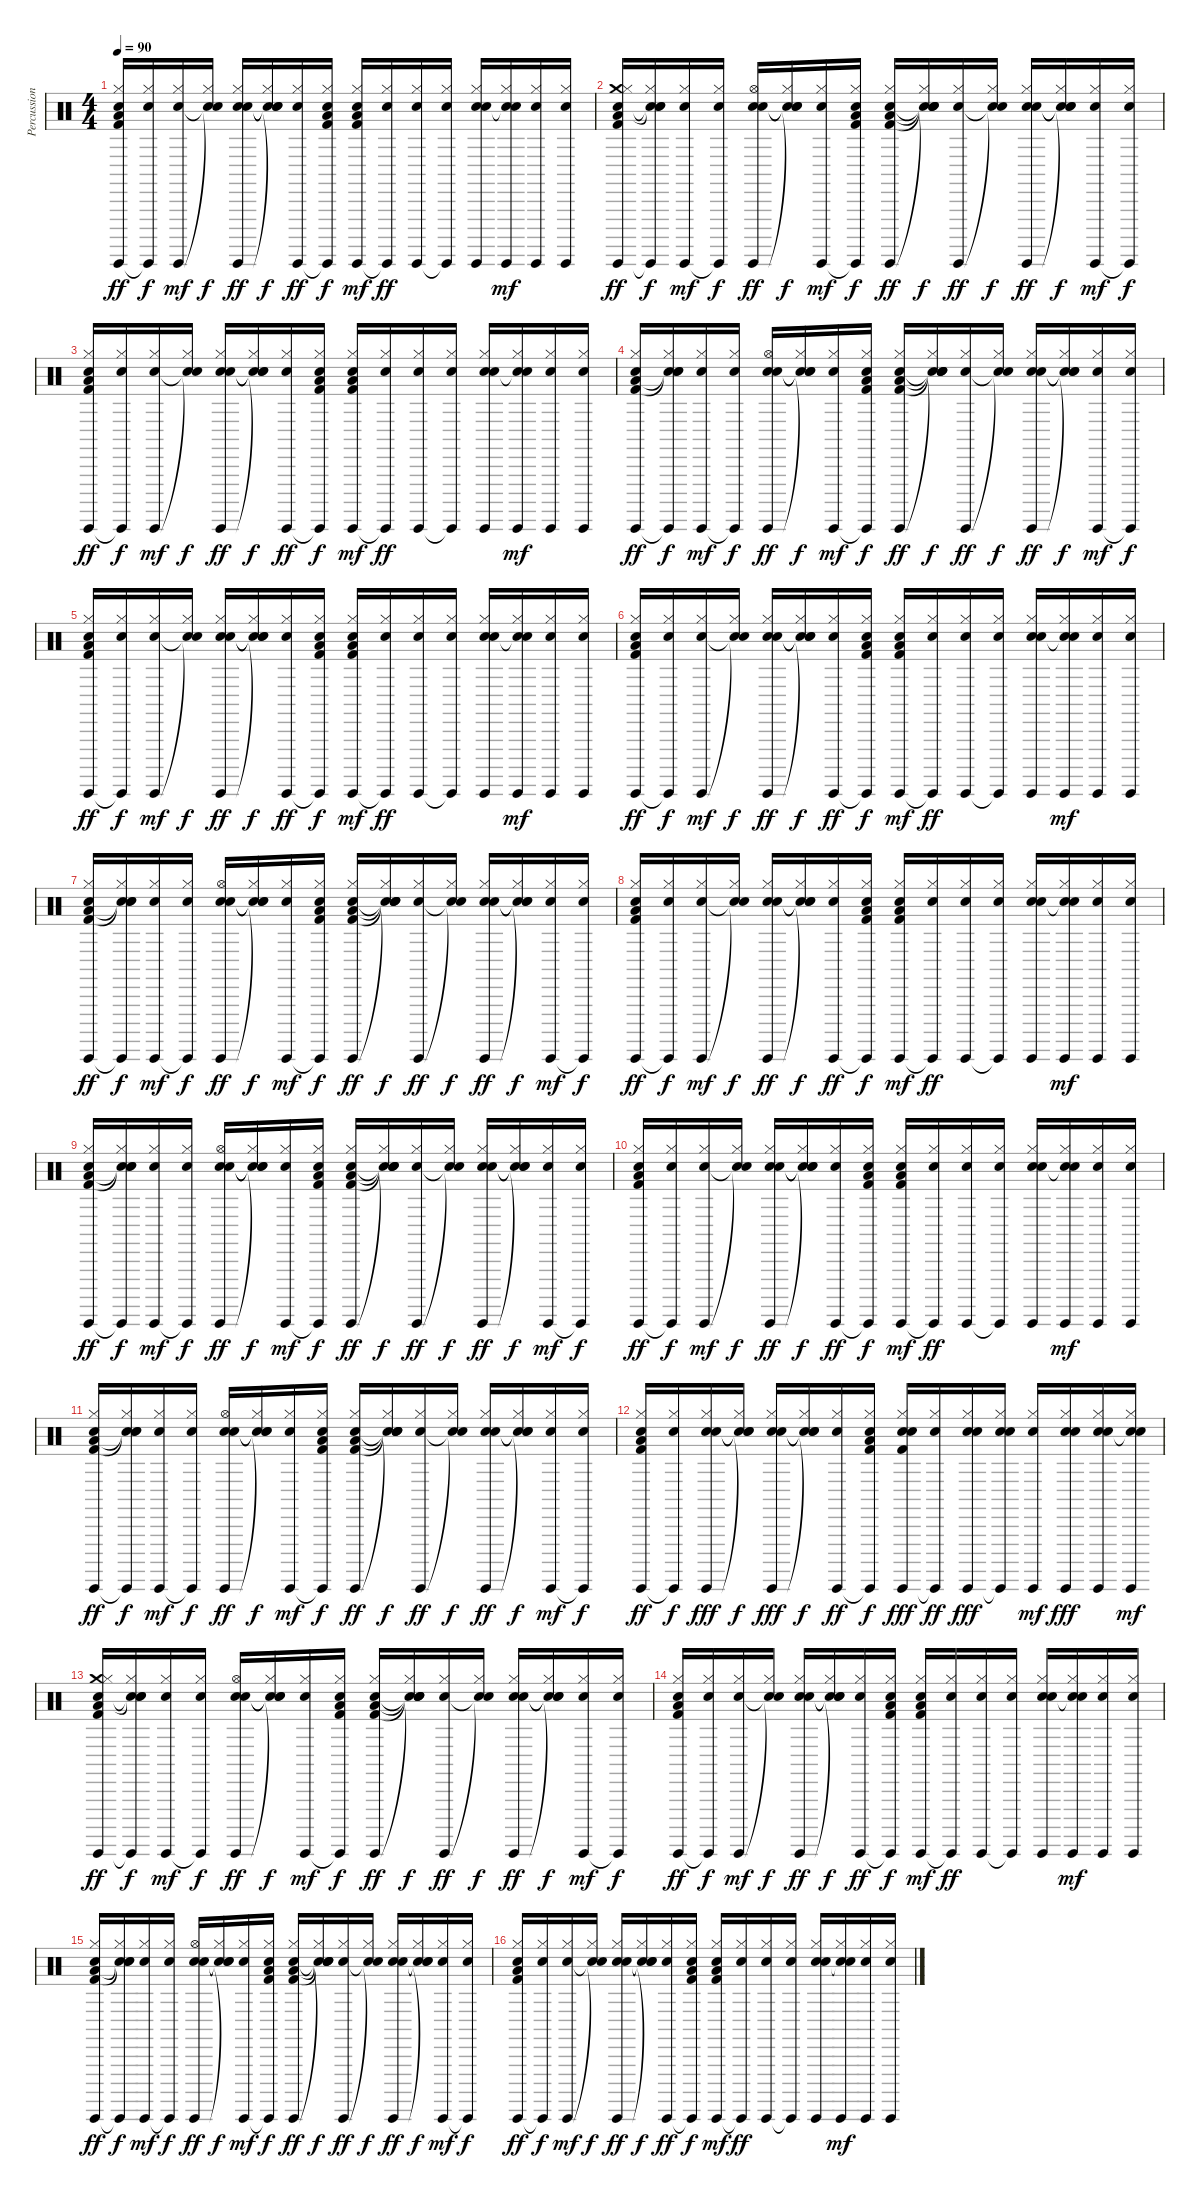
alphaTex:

\track ("Percussion" "Percussion") {instrument percussion}
\staff {score}
\articulation defaults
\ts (4 4)
\tempo 90
\clef neutral
\ks c
("Guiro (hit)" "Hi-Hat (closed)" "Hand Clap (hit)" "Low Floor Tom (hit)" "Kick (hit) 2").16{dy ff} ("Guiro (hit)"{t} "Hi-Hat (closed)" "Hand Clap (hit)").16{dy f} ("Guiro (hit)" "Hi-Hat (closed)" "Hand Clap (hit)").16{dy mf} ("Snare (hit)"{t} "Hi-Hat (closed)" "Snare (hit)"{t}).16{dy f} ("Guiro (hit)" "Hi-Hat (closed)" "Hand Clap (hit)" "Snare (hit) 2").16{dy ff} ("Snare (hit)"{t} "Hi-Hat (closed)" "Snare (hit)"{t} "Snare (hit)"{t}).16{dy f} ("Guiro (hit)" "Hi-Hat (closed)" "Hand Clap (hit)").16{dy ff} ("Guiro (hit)"{t} "Hi-Hat (closed)" "Hand Clap (hit)" "Low Floor Tom (hit)" "Kick (hit) 2").16{dy f} ("Guiro (hit)" "Hi-Hat (closed)" "Hand Clap (hit)" "Low Floor Tom (hit)" "Kick (hit) 2").16{dy mf} ("Guiro (hit)"{t} "Hi-Hat (closed)" "Hand Clap (hit)").16{dy ff} ("Guiro (hit)" "Hi-Hat (closed)" "Hand Clap (hit)").16 ("Guiro (hit)"{t} "Hi-Hat (closed)" "Hand Clap (hit)").16 ("Guiro (hit)" "Hi-Hat (closed)" "Hand Clap (hit)" "Snare (hit) 2").16 ("Guiro (hit)" "Hi-Hat (closed)" "Hand Clap (hit)" "Snare (hit)"{t}).16{dy mf} ("Guiro (hit)" "Hi-Hat (closed)" "Hand Clap (hit)").16 ("Guiro (hit)" "Hi-Hat (closed)" "Hand Clap (hit)").16 |
("Guiro (hit)" "Crash medium (hit)" "Hi-Hat (closed)" "Hand Clap (hit)" "Low Floor Tom (hit)" "Kick (hit) 2").16{dy ff} ("Guiro (hit)"{t} "Hi-Hat (closed)" "Hand Clap (hit)" "Snare (hit)"{t} "Snare (hit)"{t}).16{dy f} ("Guiro (hit)" "Hi-Hat (closed)" "Hand Clap (hit)").16{dy mf} ("Guiro (hit)"{t} "Hi-Hat (closed)" "Hand Clap (hit)").16{dy f} ("Guiro (hit)" "Hi-Hat (open)" "Hand Clap (hit)" "Snare (hit) 2").16{dy ff} ("Snare (hit)"{t} "Hi-Hat (closed)" "Snare (hit)"{t} "Snare (hit)"{t}).16{dy f} ("Guiro (hit)" "Hi-Hat (closed)" "Hand Clap (hit)").16{dy mf} ("Guiro (hit)"{t} "Hi-Hat (closed)" "Hand Clap (hit)" "Low Floor Tom (hit)" "Kick (hit) 2").16{dy f} ("Guiro (hit)" "Hi-Hat (closed)" "Hand Clap (hit)" "Low Floor Tom (hit)" "Kick (hit) 2").16{dy ff} ("Snare (hit)"{t} "Hi-Hat (closed)" "Snare (hit)"{t} "Snare (hit)"{t} "Snare (hit)"{t}).16{dy f} ("Guiro (hit)" "Hi-Hat (closed)" "Hand Clap (hit)").16{dy ff} ("Snare (hit)"{t} "Hi-Hat (closed)" "Snare (hit)"{t}).16{dy f} ("Guiro (hit)" "Hi-Hat (closed)" "Hand Clap (hit)" "Snare (hit) 2").16{dy ff} ("Snare (hit)"{t} "Hi-Hat (closed)" "Snare (hit)"{t} "Snare (hit)"{t}).16{dy f} ("Guiro (hit)" "Hi-Hat (closed)" "Hand Clap (hit)").16{dy mf} ("Guiro (hit)"{t} "Hi-Hat (closed)" "Hand Clap (hit)").16{dy f} |
("Guiro (hit)" "Hi-Hat (closed)" "Hand Clap (hit)" "Low Floor Tom (hit)" "Kick (hit) 2").16{dy ff} ("Guiro (hit)"{t} "Hi-Hat (closed)" "Hand Clap (hit)").16{dy f} ("Guiro (hit)" "Hi-Hat (closed)" "Hand Clap (hit)").16{dy mf} ("Snare (hit)"{t} "Hi-Hat (closed)" "Snare (hit)"{t}).16{dy f} ("Guiro (hit)" "Hi-Hat (closed)" "Hand Clap (hit)" "Snare (hit) 2").16{dy ff} ("Snare (hit)"{t} "Hi-Hat (closed)" "Snare (hit)"{t} "Snare (hit)"{t}).16{dy f} ("Guiro (hit)" "Hi-Hat (closed)" "Hand Clap (hit)").16{dy ff} ("Guiro (hit)"{t} "Hi-Hat (closed)" "Hand Clap (hit)" "Low Floor Tom (hit)" "Kick (hit) 2").16{dy f} ("Guiro (hit)" "Hi-Hat (closed)" "Hand Clap (hit)" "Low Floor Tom (hit)" "Kick (hit) 2").16{dy mf} ("Guiro (hit)"{t} "Hi-Hat (closed)" "Hand Clap (hit)").16{dy ff} ("Guiro (hit)" "Hi-Hat (closed)" "Hand Clap (hit)").16 ("Guiro (hit)"{t} "Hi-Hat (closed)" "Hand Clap (hit)").16 ("Guiro (hit)" "Hi-Hat (closed)" "Hand Clap (hit)" "Snare (hit) 2").16 ("Guiro (hit)" "Hi-Hat (closed)" "Hand Clap (hit)" "Snare (hit)"{t}).16{dy mf} ("Guiro (hit)" "Hi-Hat (closed)" "Hand Clap (hit)").16 ("Guiro (hit)" "Hi-Hat (closed)" "Hand Clap (hit)").16 |
("Guiro (hit)" "Hi-Hat (closed)" "Hand Clap (hit)" "Low Floor Tom (hit)" "Kick (hit) 2").16{dy ff} ("Guiro (hit)"{t} "Hi-Hat (closed)" "Hand Clap (hit)" "Snare (hit)"{t} "Snare (hit)"{t}).16{dy f} ("Guiro (hit)" "Hi-Hat (closed)" "Hand Clap (hit)").16{dy mf} ("Guiro (hit)"{t} "Hi-Hat (closed)" "Hand Clap (hit)").16{dy f} ("Guiro (hit)" "Hi-Hat (open)" "Hand Clap (hit)" "Snare (hit) 2").16{dy ff} ("Snare (hit)"{t} "Hi-Hat (closed)" "Snare (hit)"{t} "Snare (hit)"{t}).16{dy f} ("Guiro (hit)" "Hi-Hat (closed)" "Hand Clap (hit)").16{dy mf} ("Guiro (hit)"{t} "Hi-Hat (closed)" "Hand Clap (hit)" "Low Floor Tom (hit)" "Kick (hit) 2").16{dy f} ("Guiro (hit)" "Hi-Hat (closed)" "Hand Clap (hit)" "Low Floor Tom (hit)" "Kick (hit) 2").16{dy ff} ("Snare (hit)"{t} "Hi-Hat (closed)" "Snare (hit)"{t} "Snare (hit)"{t} "Snare (hit)"{t}).16{dy f} ("Guiro (hit)" "Hi-Hat (closed)" "Hand Clap (hit)").16{dy ff} ("Snare (hit)"{t} "Hi-Hat (closed)" "Snare (hit)"{t}).16{dy f} ("Guiro (hit)" "Hi-Hat (closed)" "Hand Clap (hit)" "Snare (hit) 2").16{dy ff} ("Snare (hit)"{t} "Hi-Hat (closed)" "Snare (hit)"{t} "Snare (hit)"{t}).16{dy f} ("Guiro (hit)" "Hi-Hat (closed)" "Hand Clap (hit)").16{dy mf} ("Guiro (hit)"{t} "Hi-Hat (closed)" "Hand Clap (hit)").16{dy f} |
("Guiro (hit)" "Hi-Hat (closed)" "Hand Clap (hit)" "Low Floor Tom (hit)" "Kick (hit) 2").16{dy ff} ("Guiro (hit)"{t} "Hi-Hat (closed)" "Hand Clap (hit)").16{dy f} ("Guiro (hit)" "Hi-Hat (closed)" "Hand Clap (hit)").16{dy mf} ("Snare (hit)"{t} "Hi-Hat (closed)" "Snare (hit)"{t}).16{dy f} ("Guiro (hit)" "Hi-Hat (closed)" "Hand Clap (hit)" "Snare (hit) 2").16{dy ff} ("Snare (hit)"{t} "Hi-Hat (closed)" "Snare (hit)"{t} "Snare (hit)"{t}).16{dy f} ("Guiro (hit)" "Hi-Hat (closed)" "Hand Clap (hit)").16{dy ff} ("Guiro (hit)"{t} "Hi-Hat (closed)" "Hand Clap (hit)" "Low Floor Tom (hit)" "Kick (hit) 2").16{dy f} ("Guiro (hit)" "Hi-Hat (closed)" "Hand Clap (hit)" "Low Floor Tom (hit)" "Kick (hit) 2").16{dy mf} ("Guiro (hit)"{t} "Hi-Hat (closed)" "Hand Clap (hit)").16{dy ff} ("Guiro (hit)" "Hi-Hat (closed)" "Hand Clap (hit)").16 ("Guiro (hit)"{t} "Hi-Hat (closed)" "Hand Clap (hit)").16 ("Guiro (hit)" "Hi-Hat (closed)" "Hand Clap (hit)" "Snare (hit) 2").16 ("Guiro (hit)" "Hi-Hat (closed)" "Hand Clap (hit)" "Snare (hit)"{t}).16{dy mf} ("Guiro (hit)" "Hi-Hat (closed)" "Hand Clap (hit)").16 ("Guiro (hit)" "Hi-Hat (closed)" "Hand Clap (hit)").16 |
("Guiro (hit)" "Hi-Hat (closed)" "Hand Clap (hit)" "Low Floor Tom (hit)" "Kick (hit) 2").16{dy ff} ("Guiro (hit)"{t} "Hi-Hat (closed)" "Hand Clap (hit)").16{dy f} ("Guiro (hit)" "Hi-Hat (closed)" "Hand Clap (hit)").16{dy mf} ("Snare (hit)"{t} "Hi-Hat (closed)" "Snare (hit)"{t}).16{dy f} ("Guiro (hit)" "Hi-Hat (closed)" "Hand Clap (hit)" "Snare (hit) 2").16{dy ff} ("Snare (hit)"{t} "Hi-Hat (closed)" "Snare (hit)"{t} "Snare (hit)"{t}).16{dy f} ("Guiro (hit)" "Hi-Hat (closed)" "Hand Clap (hit)").16{dy ff} ("Guiro (hit)"{t} "Hi-Hat (closed)" "Hand Clap (hit)" "Low Floor Tom (hit)" "Kick (hit) 2").16{dy f} ("Guiro (hit)" "Hi-Hat (closed)" "Hand Clap (hit)" "Low Floor Tom (hit)" "Kick (hit) 2").16{dy mf} ("Guiro (hit)"{t} "Hi-Hat (closed)" "Hand Clap (hit)").16{dy ff} ("Guiro (hit)" "Hi-Hat (closed)" "Hand Clap (hit)").16 ("Guiro (hit)"{t} "Hi-Hat (closed)" "Hand Clap (hit)").16 ("Guiro (hit)" "Hi-Hat (closed)" "Hand Clap (hit)" "Snare (hit) 2").16 ("Guiro (hit)" "Hi-Hat (closed)" "Hand Clap (hit)" "Snare (hit)"{t}).16{dy mf} ("Guiro (hit)" "Hi-Hat (closed)" "Hand Clap (hit)").16 ("Guiro (hit)" "Hi-Hat (closed)" "Hand Clap (hit)").16 |
("Guiro (hit)" "Hi-Hat (closed)" "Hand Clap (hit)" "Low Floor Tom (hit)" "Kick (hit) 2").16{dy ff} ("Guiro (hit)"{t} "Hi-Hat (closed)" "Hand Clap (hit)" "Snare (hit)"{t} "Snare (hit)"{t}).16{dy f} ("Guiro (hit)" "Hi-Hat (closed)" "Hand Clap (hit)").16{dy mf} ("Guiro (hit)"{t} "Hi-Hat (closed)" "Hand Clap (hit)").16{dy f} ("Guiro (hit)" "Hi-Hat (open)" "Hand Clap (hit)" "Snare (hit) 2").16{dy ff} ("Snare (hit)"{t} "Hi-Hat (closed)" "Snare (hit)"{t} "Snare (hit)"{t}).16{dy f} ("Guiro (hit)" "Hi-Hat (closed)" "Hand Clap (hit)").16{dy mf} ("Guiro (hit)"{t} "Hi-Hat (closed)" "Hand Clap (hit)" "Low Floor Tom (hit)" "Kick (hit) 2").16{dy f} ("Guiro (hit)" "Hi-Hat (closed)" "Hand Clap (hit)" "Low Floor Tom (hit)" "Kick (hit) 2").16{dy ff} ("Snare (hit)"{t} "Hi-Hat (closed)" "Snare (hit)"{t} "Snare (hit)"{t} "Snare (hit)"{t}).16{dy f} ("Guiro (hit)" "Hi-Hat (closed)" "Hand Clap (hit)").16{dy ff} ("Snare (hit)"{t} "Hi-Hat (closed)" "Snare (hit)"{t}).16{dy f} ("Guiro (hit)" "Hi-Hat (closed)" "Hand Clap (hit)" "Snare (hit) 2").16{dy ff} ("Snare (hit)"{t} "Hi-Hat (closed)" "Snare (hit)"{t} "Snare (hit)"{t}).16{dy f} ("Guiro (hit)" "Hi-Hat (closed)" "Hand Clap (hit)").16{dy mf} ("Guiro (hit)"{t} "Hi-Hat (closed)" "Hand Clap (hit)").16{dy f} |
("Guiro (hit)" "Hi-Hat (closed)" "Hand Clap (hit)" "Low Floor Tom (hit)" "Kick (hit) 2").16{dy ff} ("Guiro (hit)"{t} "Hi-Hat (closed)" "Hand Clap (hit)").16{dy f} ("Guiro (hit)" "Hi-Hat (closed)" "Hand Clap (hit)").16{dy mf} ("Snare (hit)"{t} "Hi-Hat (closed)" "Snare (hit)"{t}).16{dy f} ("Guiro (hit)" "Hi-Hat (closed)" "Hand Clap (hit)" "Snare (hit) 2").16{dy ff} ("Snare (hit)"{t} "Hi-Hat (closed)" "Snare (hit)"{t} "Snare (hit)"{t}).16{dy f} ("Guiro (hit)" "Hi-Hat (closed)" "Hand Clap (hit)").16{dy ff} ("Guiro (hit)"{t} "Hi-Hat (closed)" "Hand Clap (hit)" "Low Floor Tom (hit)" "Kick (hit) 2").16{dy f} ("Guiro (hit)" "Hi-Hat (closed)" "Hand Clap (hit)" "Low Floor Tom (hit)" "Kick (hit) 2").16{dy mf} ("Guiro (hit)"{t} "Hi-Hat (closed)" "Hand Clap (hit)").16{dy ff} ("Guiro (hit)" "Hi-Hat (closed)" "Hand Clap (hit)").16 ("Guiro (hit)"{t} "Hi-Hat (closed)" "Hand Clap (hit)").16 ("Guiro (hit)" "Hi-Hat (closed)" "Hand Clap (hit)" "Snare (hit) 2").16 ("Guiro (hit)" "Hi-Hat (closed)" "Hand Clap (hit)" "Snare (hit)"{t}).16{dy mf} ("Guiro (hit)" "Hi-Hat (closed)" "Hand Clap (hit)").16 ("Guiro (hit)" "Hi-Hat (closed)" "Hand Clap (hit)").16 |
("Guiro (hit)" "Hi-Hat (closed)" "Hand Clap (hit)" "Low Floor Tom (hit)" "Kick (hit) 2").16{dy ff} ("Guiro (hit)"{t} "Hi-Hat (closed)" "Hand Clap (hit)" "Snare (hit)"{t} "Snare (hit)"{t}).16{dy f} ("Guiro (hit)" "Hi-Hat (closed)" "Hand Clap (hit)").16{dy mf} ("Guiro (hit)"{t} "Hi-Hat (closed)" "Hand Clap (hit)").16{dy f} ("Guiro (hit)" "Hi-Hat (open)" "Hand Clap (hit)" "Snare (hit) 2").16{dy ff} ("Snare (hit)"{t} "Hi-Hat (closed)" "Snare (hit)"{t} "Snare (hit)"{t}).16{dy f} ("Guiro (hit)" "Hi-Hat (closed)" "Hand Clap (hit)").16{dy mf} ("Guiro (hit)"{t} "Hi-Hat (closed)" "Hand Clap (hit)" "Low Floor Tom (hit)" "Kick (hit) 2").16{dy f} ("Guiro (hit)" "Hi-Hat (closed)" "Hand Clap (hit)" "Low Floor Tom (hit)" "Kick (hit) 2").16{dy ff} ("Snare (hit)"{t} "Hi-Hat (closed)" "Snare (hit)"{t} "Snare (hit)"{t} "Snare (hit)"{t}).16{dy f} ("Guiro (hit)" "Hi-Hat (closed)" "Hand Clap (hit)").16{dy ff} ("Snare (hit)"{t} "Hi-Hat (closed)" "Snare (hit)"{t}).16{dy f} ("Guiro (hit)" "Hi-Hat (closed)" "Hand Clap (hit)" "Snare (hit) 2").16{dy ff} ("Snare (hit)"{t} "Hi-Hat (closed)" "Snare (hit)"{t} "Snare (hit)"{t}).16{dy f} ("Guiro (hit)" "Hi-Hat (closed)" "Hand Clap (hit)").16{dy mf} ("Guiro (hit)"{t} "Hi-Hat (closed)" "Hand Clap (hit)").16{dy f} |
("Guiro (hit)" "Hi-Hat (closed)" "Hand Clap (hit)" "Low Floor Tom (hit)" "Kick (hit) 2").16{dy ff} ("Guiro (hit)"{t} "Hi-Hat (closed)" "Hand Clap (hit)").16{dy f} ("Guiro (hit)" "Hi-Hat (closed)" "Hand Clap (hit)").16{dy mf} ("Snare (hit)"{t} "Hi-Hat (closed)" "Snare (hit)"{t}).16{dy f} ("Guiro (hit)" "Hi-Hat (closed)" "Hand Clap (hit)" "Snare (hit) 2").16{dy ff} ("Snare (hit)"{t} "Hi-Hat (closed)" "Snare (hit)"{t} "Snare (hit)"{t}).16{dy f} ("Guiro (hit)" "Hi-Hat (closed)" "Hand Clap (hit)").16{dy ff} ("Guiro (hit)"{t} "Hi-Hat (closed)" "Hand Clap (hit)" "Low Floor Tom (hit)" "Kick (hit) 2").16{dy f} ("Guiro (hit)" "Hi-Hat (closed)" "Hand Clap (hit)" "Low Floor Tom (hit)" "Kick (hit) 2").16{dy mf} ("Guiro (hit)"{t} "Hi-Hat (closed)" "Hand Clap (hit)").16{dy ff} ("Guiro (hit)" "Hi-Hat (closed)" "Hand Clap (hit)").16 ("Guiro (hit)"{t} "Hi-Hat (closed)" "Hand Clap (hit)").16 ("Guiro (hit)" "Hi-Hat (closed)" "Hand Clap (hit)" "Snare (hit) 2").16 ("Guiro (hit)" "Hi-Hat (closed)" "Hand Clap (hit)" "Snare (hit)"{t}).16{dy mf} ("Guiro (hit)" "Hi-Hat (closed)" "Hand Clap (hit)").16 ("Guiro (hit)" "Hi-Hat (closed)" "Hand Clap (hit)").16 |
("Guiro (hit)" "Hi-Hat (closed)" "Hand Clap (hit)" "Low Floor Tom (hit)" "Kick (hit) 2").16{dy ff} ("Guiro (hit)"{t} "Hi-Hat (closed)" "Hand Clap (hit)" "Snare (hit)"{t} "Snare (hit)"{t}).16{dy f} ("Guiro (hit)" "Hi-Hat (closed)" "Hand Clap (hit)").16{dy mf} ("Guiro (hit)"{t} "Hi-Hat (closed)" "Hand Clap (hit)").16{dy f} ("Guiro (hit)" "Hi-Hat (open)" "Hand Clap (hit)" "Snare (hit) 2").16{dy ff} ("Snare (hit)"{t} "Hi-Hat (closed)" "Snare (hit)"{t} "Snare (hit)"{t}).16{dy f} ("Guiro (hit)" "Hi-Hat (closed)" "Hand Clap (hit)").16{dy mf} ("Guiro (hit)"{t} "Hi-Hat (closed)" "Hand Clap (hit)" "Low Floor Tom (hit)" "Kick (hit) 2").16{dy f} ("Guiro (hit)" "Hi-Hat (closed)" "Hand Clap (hit)" "Low Floor Tom (hit)" "Kick (hit) 2").16{dy ff} ("Snare (hit)"{t} "Hi-Hat (closed)" "Snare (hit)"{t} "Snare (hit)"{t} "Snare (hit)"{t}).16{dy f} ("Guiro (hit)" "Hi-Hat (closed)" "Hand Clap (hit)").16{dy ff} ("Snare (hit)"{t} "Hi-Hat (closed)" "Snare (hit)"{t}).16{dy f} ("Guiro (hit)" "Hi-Hat (closed)" "Hand Clap (hit)" "Snare (hit) 2").16{dy ff} ("Snare (hit)"{t} "Hi-Hat (closed)" "Snare (hit)"{t} "Snare (hit)"{t}).16{dy f} ("Guiro (hit)" "Hi-Hat (closed)" "Hand Clap (hit)").16{dy mf} ("Guiro (hit)"{t} "Hi-Hat (closed)" "Hand Clap (hit)").16{dy f} |
("Guiro (hit)" "Hi-Hat (closed)" "Hand Clap (hit)" "Low Floor Tom (hit)" "Kick (hit) 2").16{dy ff} ("Guiro (hit)"{t} "Hi-Hat (closed)" "Hand Clap (hit)").16{dy f} ("Guiro (hit)" "Hi-Hat (closed)" "Hand Clap (hit)" "Snare (hit) 2").16{dy fff} ("Snare (hit)"{t} "Hi-Hat (closed)" "Snare (hit)"{t} "Snare (hit)"{t}).16{dy f} ("Guiro (hit)" "Hi-Hat (closed)" "Hand Clap (hit)" "Snare (hit) 2").16{dy fff} ("Snare (hit)"{t} "Hi-Hat (closed)" "Snare (hit)"{t} "Snare (hit)"{t}).16{dy f} ("Guiro (hit)" "Hi-Hat (closed)" "Hand Clap (hit)").16{dy ff} ("Guiro (hit)"{t} "Hi-Hat (closed)" "Hand Clap (hit)" "Low Floor Tom (hit)" "Kick (hit) 2").16{dy f} ("Guiro (hit)" "Hi-Hat (closed)" "Hand Clap (hit)" "Snare (hit) 2" "Kick (hit) 2").16{dy fff} ("Guiro (hit)"{t} "Hi-Hat (closed)" "Hand Clap (hit)").16{dy ff} ("Guiro (hit)" "Hi-Hat (closed)" "Hand Clap (hit)" "Snare (hit) 2").16{dy fff} ("Guiro (hit)"{t} "Hi-Hat (closed)" "Hand Clap (hit)" "Snare (hit) 2").16 ("Guiro (hit)" "Hi-Hat (closed)" "Hand Clap (hit)").16{dy mf} ("Guiro (hit)" "Hi-Hat (closed)" "Hand Clap (hit)" "Snare (hit) 2").16{dy fff} ("Guiro (hit)" "Hi-Hat (closed)" "Hand Clap (hit)" "Snare (hit) 2").16 ("Guiro (hit)" "Hi-Hat (closed)" "Hand Clap (hit)" "Snare (hit)"{t}).16{dy mf} |
("Guiro (hit)" "Crash medium (hit)" "Hi-Hat (closed)" "Hand Clap (hit)" "Low Floor Tom (hit)" "Kick (hit) 2").16{dy ff} ("Guiro (hit)"{t} "Hi-Hat (closed)" "Hand Clap (hit)" "Snare (hit)"{t} "Snare (hit)"{t}).16{dy f} ("Guiro (hit)" "Hi-Hat (closed)" "Hand Clap (hit)").16{dy mf} ("Guiro (hit)"{t} "Hi-Hat (closed)" "Hand Clap (hit)").16{dy f} ("Guiro (hit)" "Hi-Hat (open)" "Hand Clap (hit)" "Snare (hit) 2").16{dy ff} ("Snare (hit)"{t} "Hi-Hat (closed)" "Snare (hit)"{t} "Snare (hit)"{t}).16{dy f} ("Guiro (hit)" "Hi-Hat (closed)" "Hand Clap (hit)").16{dy mf} ("Guiro (hit)"{t} "Hi-Hat (closed)" "Hand Clap (hit)" "Low Floor Tom (hit)" "Kick (hit) 2").16{dy f} ("Guiro (hit)" "Hi-Hat (closed)" "Hand Clap (hit)" "Low Floor Tom (hit)" "Kick (hit) 2").16{dy ff} ("Snare (hit)"{t} "Hi-Hat (closed)" "Snare (hit)"{t} "Snare (hit)"{t} "Snare (hit)"{t}).16{dy f} ("Guiro (hit)" "Hi-Hat (closed)" "Hand Clap (hit)").16{dy ff} ("Snare (hit)"{t} "Hi-Hat (closed)" "Snare (hit)"{t}).16{dy f} ("Guiro (hit)" "Hi-Hat (closed)" "Hand Clap (hit)" "Snare (hit) 2").16{dy ff} ("Snare (hit)"{t} "Hi-Hat (closed)" "Snare (hit)"{t} "Snare (hit)"{t}).16{dy f} ("Guiro (hit)" "Hi-Hat (closed)" "Hand Clap (hit)").16{dy mf} ("Guiro (hit)"{t} "Hi-Hat (closed)" "Hand Clap (hit)").16{dy f} |
("Guiro (hit)" "Hi-Hat (closed)" "Hand Clap (hit)" "Low Floor Tom (hit)" "Kick (hit) 2").16{dy ff} ("Guiro (hit)"{t} "Hi-Hat (closed)" "Hand Clap (hit)").16{dy f} ("Guiro (hit)" "Hi-Hat (closed)" "Hand Clap (hit)").16{dy mf} ("Snare (hit)"{t} "Hi-Hat (closed)" "Snare (hit)"{t}).16{dy f} ("Guiro (hit)" "Hi-Hat (closed)" "Hand Clap (hit)" "Snare (hit) 2").16{dy ff} ("Snare (hit)"{t} "Hi-Hat (closed)" "Snare (hit)"{t} "Snare (hit)"{t}).16{dy f} ("Guiro (hit)" "Hi-Hat (closed)" "Hand Clap (hit)").16{dy ff} ("Guiro (hit)"{t} "Hi-Hat (closed)" "Hand Clap (hit)" "Low Floor Tom (hit)" "Kick (hit) 2").16{dy f} ("Guiro (hit)" "Hi-Hat (closed)" "Hand Clap (hit)" "Low Floor Tom (hit)" "Kick (hit) 2").16{dy mf} ("Guiro (hit)"{t} "Hi-Hat (closed)" "Hand Clap (hit)").16{dy ff} ("Guiro (hit)" "Hi-Hat (closed)" "Hand Clap (hit)").16 ("Guiro (hit)"{t} "Hi-Hat (closed)" "Hand Clap (hit)").16 ("Guiro (hit)" "Hi-Hat (closed)" "Hand Clap (hit)" "Snare (hit) 2").16 ("Guiro (hit)" "Hi-Hat (closed)" "Hand Clap (hit)" "Snare (hit)"{t}).16{dy mf} ("Guiro (hit)" "Hi-Hat (closed)" "Hand Clap (hit)").16 ("Guiro (hit)" "Hi-Hat (closed)" "Hand Clap (hit)").16 |
("Guiro (hit)" "Hi-Hat (closed)" "Hand Clap (hit)" "Low Floor Tom (hit)" "Kick (hit) 2").16{dy ff} ("Guiro (hit)"{t} "Hi-Hat (closed)" "Hand Clap (hit)" "Snare (hit)"{t} "Snare (hit)"{t}).16{dy f} ("Guiro (hit)" "Hi-Hat (closed)" "Hand Clap (hit)").16{dy mf} ("Guiro (hit)"{t} "Hi-Hat (closed)" "Hand Clap (hit)").16{dy f} ("Guiro (hit)" "Hi-Hat (open)" "Hand Clap (hit)" "Snare (hit) 2").16{dy ff} ("Snare (hit)"{t} "Hi-Hat (closed)" "Snare (hit)"{t} "Snare (hit)"{t}).16{dy f} ("Guiro (hit)" "Hi-Hat (closed)" "Hand Clap (hit)").16{dy mf} ("Guiro (hit)"{t} "Hi-Hat (closed)" "Hand Clap (hit)" "Low Floor Tom (hit)" "Kick (hit) 2").16{dy f} ("Guiro (hit)" "Hi-Hat (closed)" "Hand Clap (hit)" "Low Floor Tom (hit)" "Kick (hit) 2").16{dy ff} ("Snare (hit)"{t} "Hi-Hat (closed)" "Snare (hit)"{t} "Snare (hit)"{t} "Snare (hit)"{t}).16{dy f} ("Guiro (hit)" "Hi-Hat (closed)" "Hand Clap (hit)").16{dy ff} ("Snare (hit)"{t} "Hi-Hat (closed)" "Snare (hit)"{t}).16{dy f} ("Guiro (hit)" "Hi-Hat (closed)" "Hand Clap (hit)" "Snare (hit) 2").16{dy ff} ("Snare (hit)"{t} "Hi-Hat (closed)" "Snare (hit)"{t} "Snare (hit)"{t}).16{dy f} ("Guiro (hit)" "Hi-Hat (closed)" "Hand Clap (hit)").16{dy mf} ("Guiro (hit)"{t} "Hi-Hat (closed)" "Hand Clap (hit)").16{dy f} |
("Guiro (hit)" "Hi-Hat (closed)" "Hand Clap (hit)" "Low Floor Tom (hit)" "Kick (hit) 2").16{dy ff} ("Guiro (hit)"{t} "Hi-Hat (closed)" "Hand Clap (hit)").16{dy f} ("Guiro (hit)" "Hi-Hat (closed)" "Hand Clap (hit)").16{dy mf} ("Snare (hit)"{t} "Hi-Hat (closed)" "Snare (hit)"{t}).16{dy f} ("Guiro (hit)" "Hi-Hat (closed)" "Hand Clap (hit)" "Snare (hit) 2").16{dy ff} ("Snare (hit)"{t} "Hi-Hat (closed)" "Snare (hit)"{t} "Snare (hit)"{t}).16{dy f} ("Guiro (hit)" "Hi-Hat (closed)" "Hand Clap (hit)").16{dy ff} ("Guiro (hit)"{t} "Hi-Hat (closed)" "Hand Clap (hit)" "Low Floor Tom (hit)" "Kick (hit) 2").16{dy f} ("Guiro (hit)" "Hi-Hat (closed)" "Hand Clap (hit)" "Low Floor Tom (hit)" "Kick (hit) 2").16{dy mf} ("Guiro (hit)"{t} "Hi-Hat (closed)" "Hand Clap (hit)").16{dy ff} ("Guiro (hit)" "Hi-Hat (closed)" "Hand Clap (hit)").16 ("Guiro (hit)"{t} "Hi-Hat (closed)" "Hand Clap (hit)").16 ("Guiro (hit)" "Hi-Hat (closed)" "Hand Clap (hit)" "Snare (hit) 2").16 ("Guiro (hit)" "Hi-Hat (closed)" "Hand Clap (hit)" "Snare (hit)"{t}).16{dy mf} ("Guiro (hit)" "Hi-Hat (closed)" "Hand Clap (hit)").16 ("Guiro (hit)" "Hi-Hat (closed)" "Hand Clap (hit)").16
